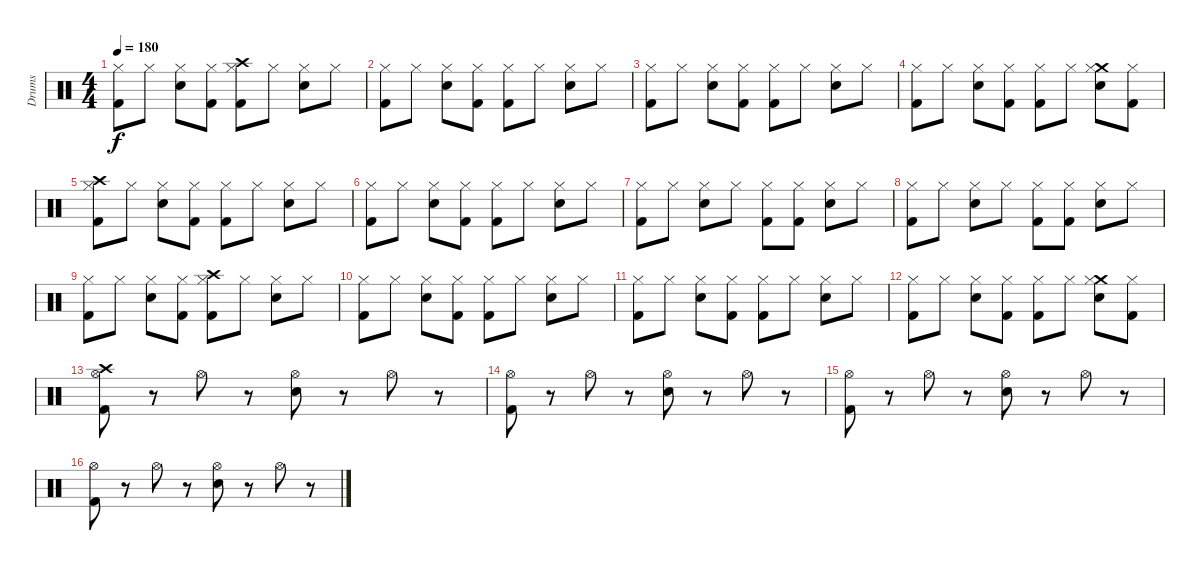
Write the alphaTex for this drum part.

\track ("Drums" "Drums") {instrument percussion}
\staff {score}
\articulation defaults
\ts (4 4)
\tempo 180
\clef neutral
\ks c
("Hi-Hat (closed)" "Kick (hit) 2").8{dy f} "Hi-Hat (closed)".8 ("Hi-Hat (closed)" "Snare (hit) 2").8 ("Hi-Hat (closed)" "Kick (hit) 2").8 ("Crash high (hit)" "Hi-Hat (closed)" "Kick (hit) 2").8 "Hi-Hat (closed)".8 ("Hi-Hat (closed)" "Snare (hit) 2").8 "Hi-Hat (closed)".8 |
("Hi-Hat (closed)" "Kick (hit) 2").8 "Hi-Hat (closed)".8 ("Hi-Hat (closed)" "Snare (hit) 2").8 ("Hi-Hat (closed)" "Kick (hit) 2").8 ("Hi-Hat (closed)" "Kick (hit) 2").8 "Hi-Hat (closed)".8 ("Hi-Hat (closed)" "Snare (hit) 2").8 "Hi-Hat (closed)".8 |
("Hi-Hat (closed)" "Kick (hit) 2").8 "Hi-Hat (closed)".8 ("Hi-Hat (closed)" "Snare (hit) 2").8 ("Hi-Hat (closed)" "Kick (hit) 2").8 ("Hi-Hat (closed)" "Kick (hit) 2").8 "Hi-Hat (closed)".8 ("Hi-Hat (closed)" "Snare (hit) 2").8 "Hi-Hat (closed)".8 |
("Hi-Hat (closed)" "Kick (hit) 2").8 "Hi-Hat (closed)".8 ("Hi-Hat (closed)" "Snare (hit) 2").8 ("Hi-Hat (closed)" "Kick (hit) 2").8 ("Hi-Hat (closed)" "Kick (hit) 2").8 "Hi-Hat (closed)".8 ("Crash medium (hit)" "Hi-Hat (closed)" "Snare (hit) 2").8 ("Hi-Hat (closed)" "Kick (hit) 2").8 |
("Crash high (hit)" "Hi-Hat (closed)" "Kick (hit) 2").8 "Hi-Hat (closed)".8 ("Hi-Hat (closed)" "Snare (hit) 2").8 ("Hi-Hat (closed)" "Kick (hit) 2").8 ("Hi-Hat (closed)" "Kick (hit) 2").8 "Hi-Hat (closed)".8 ("Hi-Hat (closed)" "Snare (hit) 2").8 "Hi-Hat (closed)".8 |
("Hi-Hat (closed)" "Kick (hit) 2").8 "Hi-Hat (closed)".8 ("Hi-Hat (closed)" "Snare (hit) 2").8 ("Hi-Hat (closed)" "Kick (hit) 2").8 ("Hi-Hat (closed)" "Kick (hit) 2").8 "Hi-Hat (closed)".8 ("Hi-Hat (closed)" "Snare (hit) 2").8 "Hi-Hat (closed)".8 |
("Hi-Hat (closed)" "Kick (hit) 2").8 "Hi-Hat (closed)".8 ("Hi-Hat (closed)" "Snare (hit) 2").8 "Hi-Hat (closed)".8 ("Hi-Hat (closed)" "Kick (hit) 2").8 ("Hi-Hat (closed)" "Kick (hit) 2").8 ("Hi-Hat (closed)" "Snare (hit) 2").8 "Hi-Hat (closed)".8 |
("Hi-Hat (closed)" "Kick (hit) 2").8 "Hi-Hat (closed)".8 ("Hi-Hat (closed)" "Snare (hit) 2").8 "Hi-Hat (closed)".8 ("Hi-Hat (closed)" "Kick (hit) 2").8 ("Hi-Hat (closed)" "Kick (hit) 2").8 ("Hi-Hat (closed)" "Snare (hit) 2").8 "Hi-Hat (closed)".8 |
("Hi-Hat (closed)" "Kick (hit) 2").8 "Hi-Hat (closed)".8 ("Hi-Hat (closed)" "Snare (hit) 2").8 ("Hi-Hat (closed)" "Kick (hit) 2").8 ("Crash high (hit)" "Hi-Hat (closed)" "Kick (hit) 2").8 "Hi-Hat (closed)".8 ("Hi-Hat (closed)" "Snare (hit) 2").8 "Hi-Hat (closed)".8 |
("Hi-Hat (closed)" "Kick (hit) 2").8 "Hi-Hat (closed)".8 ("Hi-Hat (closed)" "Snare (hit) 2").8 ("Hi-Hat (closed)" "Kick (hit) 2").8 ("Hi-Hat (closed)" "Kick (hit) 2").8 "Hi-Hat (closed)".8 ("Hi-Hat (closed)" "Snare (hit) 2").8 "Hi-Hat (closed)".8 |
("Hi-Hat (closed)" "Kick (hit) 2").8 "Hi-Hat (closed)".8 ("Hi-Hat (closed)" "Snare (hit) 2").8 ("Hi-Hat (closed)" "Kick (hit) 2").8 ("Hi-Hat (closed)" "Kick (hit) 2").8 "Hi-Hat (closed)".8 ("Hi-Hat (closed)" "Snare (hit) 2").8 "Hi-Hat (closed)".8 |
("Hi-Hat (closed)" "Kick (hit) 2").8 "Hi-Hat (closed)".8 ("Hi-Hat (closed)" "Snare (hit) 2").8 ("Hi-Hat (closed)" "Kick (hit) 2").8 ("Hi-Hat (closed)" "Kick (hit) 2").8 "Hi-Hat (closed)".8 ("Crash medium (hit)" "Hi-Hat (closed)" "Snare (hit) 2").8 ("Hi-Hat (closed)" "Kick (hit) 2").8 |
("Crash high (hit)" "Hi-Hat (open)" "Kick (hit) 2").8 r.8 "Hi-Hat (open)".8 r.8 ("Hi-Hat (open)" "Snare (hit) 2").8 r.8 "Hi-Hat (open)".8 r.8 |
("Hi-Hat (open)" "Kick (hit) 2").8 r.8 "Hi-Hat (open)".8 r.8 ("Hi-Hat (open)" "Snare (hit) 2").8 r.8 "Hi-Hat (open)".8 r.8 |
("Hi-Hat (open)" "Kick (hit) 2").8 r.8 "Hi-Hat (open)".8 r.8 ("Hi-Hat (open)" "Snare (hit) 2").8 r.8 "Hi-Hat (open)".8 r.8 |
("Hi-Hat (open)" "Kick (hit) 2").8 r.8 "Hi-Hat (open)".8 r.8 ("Hi-Hat (open)" "Snare (hit) 2").8 r.8 "Hi-Hat (open)".8 r.8
